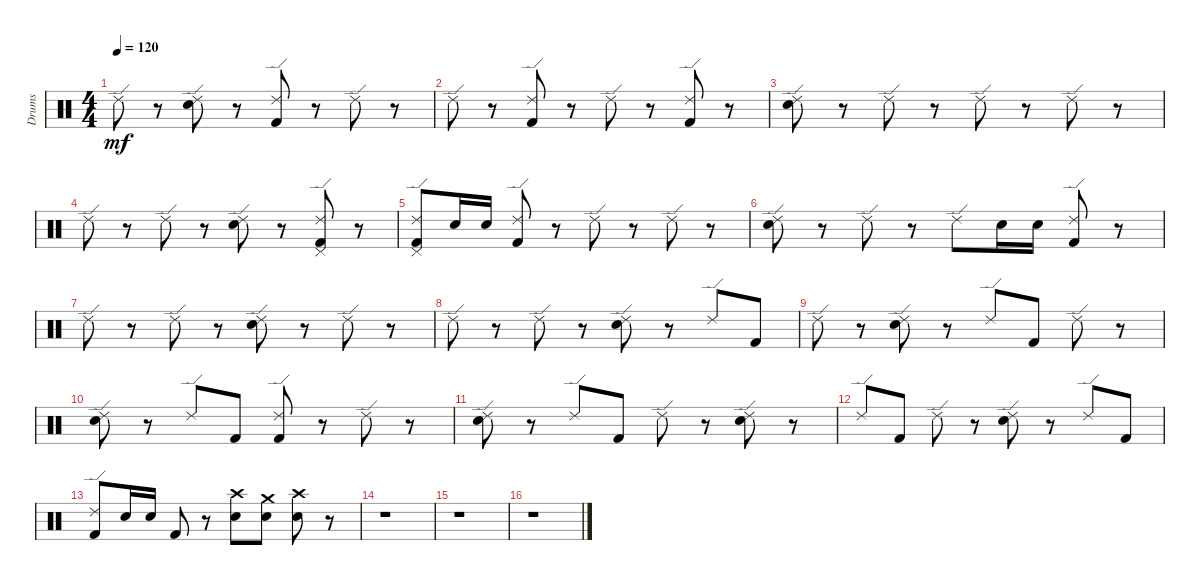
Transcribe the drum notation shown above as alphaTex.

\track ("Drums" "Drums") {instrument percussion}
\staff {score}
\articulation defaults
\ts (4 4)
\tempo 120
\clef neutral
\ks c "Ride (edge) 2".8{dy mf}
r.8 ("Electric Snare (hit)" "Ride (edge) 2").8 r.8 ("Kick (hit) 2" "Ride (edge) 2").8 r.8 "Ride (edge) 2".8 r.8 |
"Ride (edge) 2".8 r.8 ("Kick (hit) 2" "Ride (edge) 2").8 r.8 "Ride (edge) 2".8 r.8 ("Kick (hit) 2" "Ride (edge) 2").8 r.8 |
("Electric Snare (hit)" "Ride (edge) 2").8 r.8 "Ride (edge) 2".8 r.8 "Ride (edge) 2".8 r.8 "Ride (edge) 2".8 r.8 |
"Ride (edge) 2".8 r.8 "Ride (edge) 2".8 r.8 ("Electric Snare (hit)" "Ride (edge) 2").8 r.8 ("Kick (hit) 2" "Pedal Hi-Hat (hit)" "Ride (edge) 2").8 r.8 |
("Kick (hit) 2" "Pedal Hi-Hat (hit)" "Ride (edge) 2").8 "Electric Snare (hit)".16 "Electric Snare (hit)".16 ("Kick (hit) 2" "Ride (edge) 2").8 r.8 "Ride (edge) 2".8 r.8 "Ride (edge) 2".8 r.8 |
("Electric Snare (hit)" "Ride (edge) 2").8 r.8 "Ride (edge) 2".8 r.8 "Ride (edge) 2".8 "Electric Snare (hit)".16 "Electric Snare (hit)".16 ("Kick (hit) 2" "Ride (edge) 2").8 r.8 |
"Ride (edge) 2".8 r.8 "Ride (edge) 2".8 r.8 ("Electric Snare (hit)" "Ride (edge) 2").8 r.8 "Ride (edge) 2".8 r.8 |
"Ride (edge) 2".8 r.8 "Ride (edge) 2".8 r.8 ("Electric Snare (hit)" "Ride (edge) 2").8 r.8 "Ride (edge) 2".8 "Kick (hit) 2".8 |
"Ride (edge) 2".8 r.8 ("Electric Snare (hit)" "Ride (edge) 2").8 r.8 "Ride (edge) 2".8 "Kick (hit) 2".8 "Ride (edge) 2".8 r.8 |
("Electric Snare (hit)" "Ride (edge) 2").8 r.8 "Ride (edge) 2".8 "Kick (hit) 2".8 ("Kick (hit) 2" "Ride (edge) 2").8 r.8 "Ride (edge) 2".8 r.8 |
("Electric Snare (hit)" "Ride (edge) 2").8 r.8 "Ride (edge) 2".8 "Kick (hit) 2".8 "Ride (edge) 2".8 r.8 ("Electric Snare (hit)" "Ride (edge) 2").8 r.8 |
"Ride (edge) 2".8 "Kick (hit) 2".8 "Ride (edge) 2".8 r.8 ("Electric Snare (hit)" "Ride (edge) 2").8 r.8 "Ride (edge) 2".8 "Kick (hit) 2".8 |
("Kick (hit) 2" "Ride (edge) 2").8 "Electric Snare (hit)".16 "Electric Snare (hit)".16 "Kick (hit) 2".8 r.8 ("Electric Snare (hit)" "Crash high (hit)").8 ("Electric Snare (hit)" "Crash medium (hit)").8 ("Electric Snare (hit)" "Crash high (hit)").8 r.8 |
r.1 |
r.1 |
r.1
